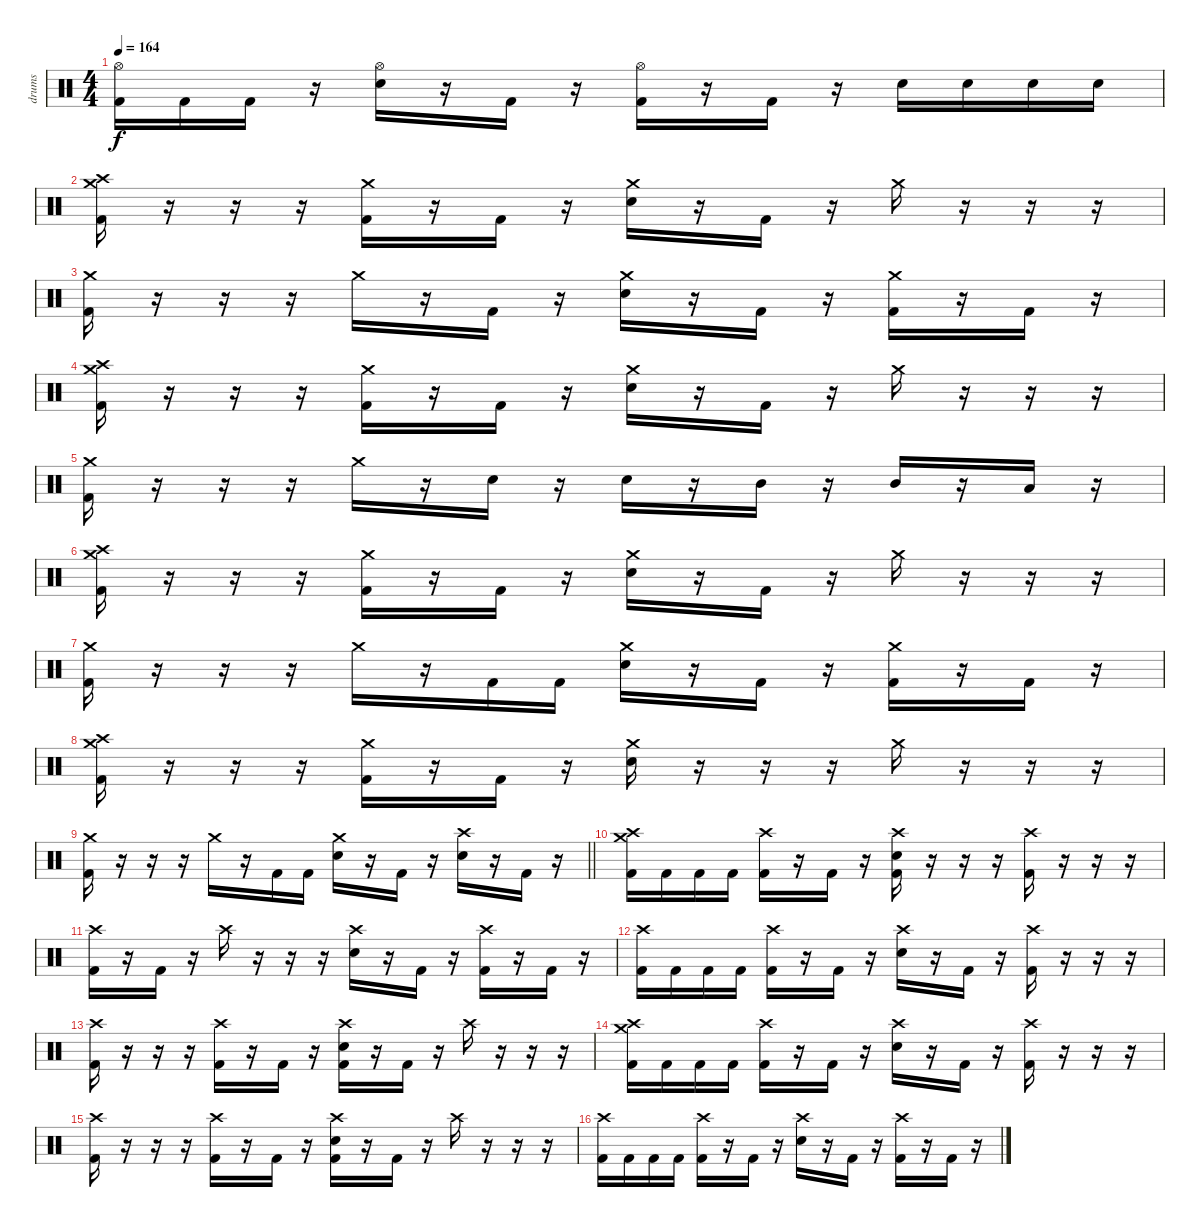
\track ("drums" "drums") {instrument percussion}
\staff {score}
\articulation defaults
\ts (4 4)
\tempo 164
\clef neutral
\ks c
("Hi-Hat (open)" "Kick (hit) 2").16{dy f} "Kick (hit) 2".16 "Kick (hit) 2".16 r.16 ("Hi-Hat (open)" "Electric Snare (hit)").16 r.16 "Kick (hit) 2".16 r.16 ("Hi-Hat (open)" "Kick (hit) 2").16 r.16 "Kick (hit) 2".16 r.16 "Electric Snare (hit)".16 "Electric Snare (hit)".16 "Electric Snare (hit)".16 "Electric Snare (hit)".16 |
("Crash medium (hit)" "Crash high (hit)" "Kick (hit) 2").16 r.16 r.16 r.16 ("Crash medium (hit)" "Kick (hit) 2").16 r.16 "Kick (hit) 2".16 r.16 ("Crash medium (hit)" "Electric Snare (hit)").16 r.16 "Kick (hit) 2".16 r.16 "Crash medium (hit)".16 r.16 r.16 r.16 |
("Crash medium (hit)" "Kick (hit) 2").16 r.16 r.16 r.16 "Crash medium (hit)".16 r.16 "Kick (hit) 2".16 r.16 ("Crash medium (hit)" "Electric Snare (hit)").16 r.16 "Kick (hit) 2".16 r.16 ("Crash medium (hit)" "Kick (hit) 2").16 r.16 "Kick (hit) 2".16 r.16 |
("Crash medium (hit)" "Crash high (hit)" "Kick (hit) 2").16 r.16 r.16 r.16 ("Crash medium (hit)" "Kick (hit) 2").16 r.16 "Kick (hit) 2".16 r.16 ("Crash medium (hit)" "Electric Snare (hit)").16 r.16 "Kick (hit) 2".16 r.16 "Crash medium (hit)".16 r.16 r.16 r.16 |
("Crash medium (hit)" "Kick (hit) 2").16 r.16 r.16 r.16 "Crash medium (hit)".16 r.16 "Electric Snare (hit)".16 r.16 "Electric Snare (hit)".16 r.16 "Mid Tom (hit)".16 r.16 "Mid Tom (hit)".16 r.16 "Low Floor Tom (hit)".16 r.16 |
("Crash medium (hit)" "Crash high (hit)" "Kick (hit) 2").16 r.16 r.16 r.16 ("Crash medium (hit)" "Kick (hit) 2").16 r.16 "Kick (hit) 2".16 r.16 ("Crash medium (hit)" "Electric Snare (hit)").16 r.16 "Kick (hit) 2".16 r.16 "Crash medium (hit)".16 r.16 r.16 r.16 |
("Crash medium (hit)" "Kick (hit) 2").16 r.16 r.16 r.16 "Crash medium (hit)".16 r.16 "Kick (hit) 2".16 "Kick (hit) 2".16 ("Crash medium (hit)" "Electric Snare (hit)").16 r.16 "Kick (hit) 2".16 r.16 ("Crash medium (hit)" "Kick (hit) 2").16 r.16 "Kick (hit) 2".16 r.16 |
("Crash medium (hit)" "Crash high (hit)" "Kick (hit) 2").16 r.16 r.16 r.16 ("Crash medium (hit)" "Kick (hit) 2").16 r.16 "Kick (hit) 2".16 r.16 ("Crash medium (hit)" "Electric Snare (hit)").16 r.16 r.16 r.16 "Crash medium (hit)".16 r.16 r.16 r.16 |
\barLineRight lightlight
("Crash medium (hit)" "Kick (hit) 2").16 r.16 r.16 r.16 "Crash medium (hit)".16 r.16 "Kick (hit) 2".16 "Kick (hit) 2".16 ("Crash medium (hit)" "Electric Snare (hit)").16 r.16 "Kick (hit) 2".16 r.16 ("Crash high (hit)" "Electric Snare (hit)").16 r.16 "Kick (hit) 2".16 r.16 |
("Crash high (hit)" "Crash medium (hit)" "Kick (hit) 2").16 "Kick (hit) 2".16 "Kick (hit) 2".16 "Kick (hit) 2".16 ("Crash high (hit)" "Kick (hit) 2").16 r.16 "Kick (hit) 2".16 r.16 ("Crash high (hit)" "Electric Snare (hit)" "Kick (hit) 2").16 r.16 r.16 r.16 ("Crash high (hit)" "Kick (hit) 2").16 r.16 r.16 r.16 |
("Crash high (hit)" "Kick (hit) 2").16 r.16 "Kick (hit) 2".16 r.16 "Crash high (hit)".16 r.16 r.16 r.16 ("Crash high (hit)" "Electric Snare (hit)").16 r.16 "Kick (hit) 2".16 r.16 ("Crash high (hit)" "Kick (hit) 2").16 r.16 "Kick (hit) 2".16 r.16 |
("Crash high (hit)" "Kick (hit) 2").16 "Kick (hit) 2".16 "Kick (hit) 2".16 "Kick (hit) 2".16 ("Crash high (hit)" "Kick (hit) 2").16 r.16 "Kick (hit) 2".16 r.16 ("Crash high (hit)" "Electric Snare (hit)").16 r.16 "Kick (hit) 2".16 r.16 ("Crash high (hit)" "Kick (hit) 2").16 r.16 r.16 r.16 |
("Crash high (hit)" "Kick (hit) 2").16 r.16 r.16 r.16 ("Crash high (hit)" "Kick (hit) 2").16 r.16 "Kick (hit) 2".16 r.16 ("Crash high (hit)" "Electric Snare (hit)" "Kick (hit) 2").16 r.16 "Kick (hit) 2".16 r.16 "Crash high (hit)".16 r.16 r.16 r.16 |
("Crash high (hit)" "Crash medium (hit)" "Kick (hit) 2").16 "Kick (hit) 2".16 "Kick (hit) 2".16 "Kick (hit) 2".16 ("Crash high (hit)" "Kick (hit) 2").16 r.16 "Kick (hit) 2".16 r.16 ("Crash high (hit)" "Electric Snare (hit)").16 r.16 "Kick (hit) 2".16 r.16 ("Crash high (hit)" "Kick (hit) 2").16 r.16 r.16 r.16 |
("Crash high (hit)" "Kick (hit) 2").16 r.16 r.16 r.16 ("Crash high (hit)" "Kick (hit) 2").16 r.16 "Kick (hit) 2".16 r.16 ("Crash high (hit)" "Electric Snare (hit)" "Kick (hit) 2").16 r.16 "Kick (hit) 2".16 r.16 "Crash high (hit)".16 r.16 r.16 r.16 |
("Crash high (hit)" "Kick (hit) 2").16 "Kick (hit) 2".16 "Kick (hit) 2".16 "Kick (hit) 2".16 ("Crash high (hit)" "Kick (hit) 2").16 r.16 "Kick (hit) 2".16 r.16 ("Crash high (hit)" "Electric Snare (hit)").16 r.16 "Kick (hit) 2".16 r.16 ("Crash high (hit)" "Kick (hit) 2").16 r.16 "Kick (hit) 2".16 r.16
